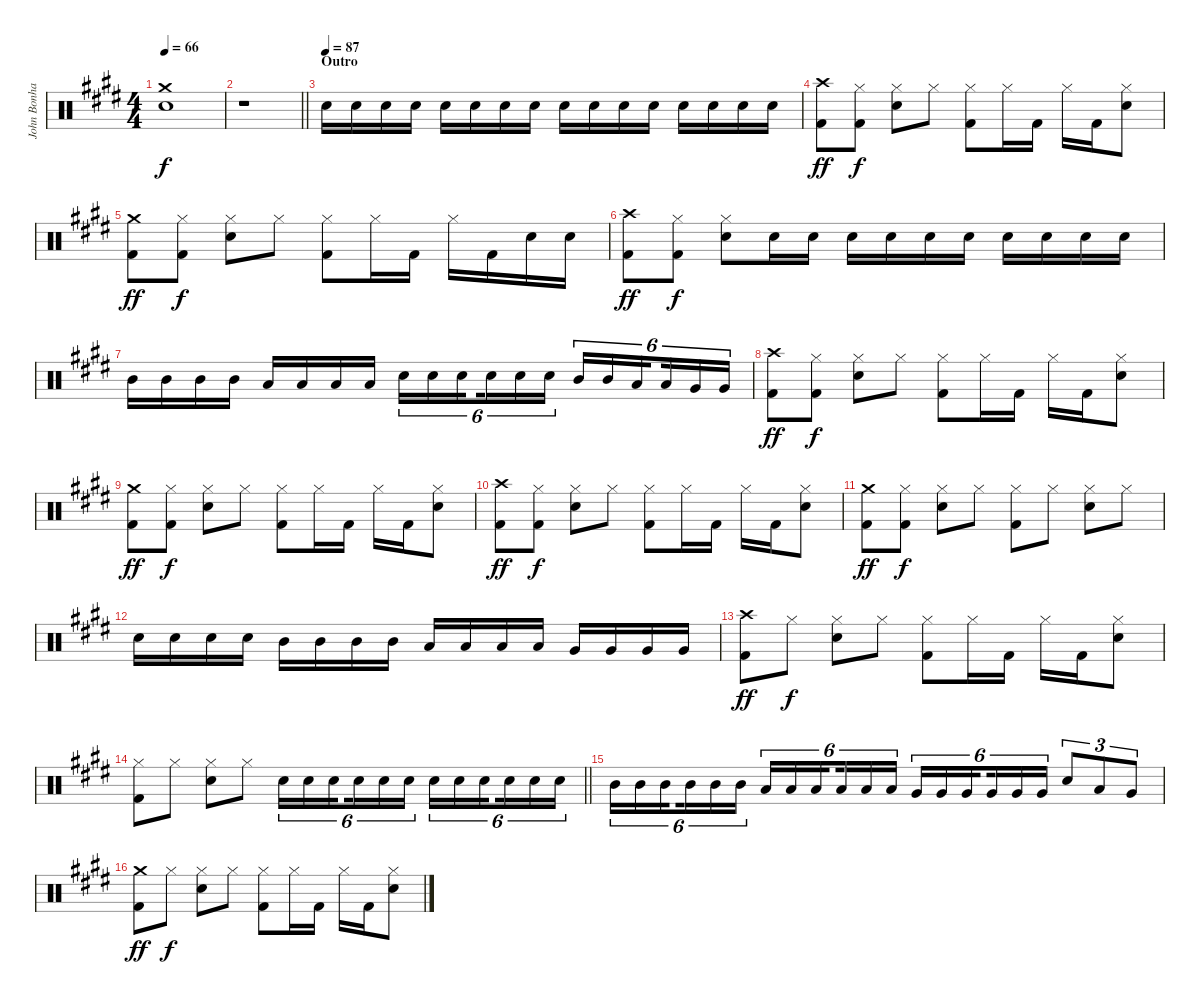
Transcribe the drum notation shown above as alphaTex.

\track ("John Bonham Drums" "John Bonha") {instrument percussion}
\staff {score}
\articulation defaults
\ts (4 4)
\tempo 66
\clef neutral
\ks e
("Crash medium (hit)"{t} "Snare (hit)"{t}).1{dy f} |
\barLineRight lightlight
r.1 |
\section ("" "Outro")
\tempo 88
\tempo (87)
"Snare (hit) 2".16 "Snare (hit) 2".16 "Snare (hit) 2".16 "Snare (hit) 2".16 "Snare (hit) 2".16 "Snare (hit) 2".16 "Snare (hit) 2".16 "Snare (hit) 2".16 "Snare (hit) 2".16 "Snare (hit) 2".16 "Snare (hit) 2".16 "Snare (hit) 2".16 "Snare (hit) 2".16 "Snare (hit) 2".16 "Snare (hit) 2".16 "Snare (hit) 2".16 |
("Crash high (hit)" "Kick (hit) 2").8{dy ff} ("Hi-Hat (closed)" "Kick (hit) 2").8{dy f} ("Hi-Hat (closed)" "Snare (hit) 2").8 "Hi-Hat (closed)".8 ("Hi-Hat (closed)" "Kick (hit) 2").8 "Hi-Hat (closed)".16 "Kick (hit) 2".16 "Hi-Hat (closed)".16 "Kick (hit) 2".16 ("Hi-Hat (closed)" "Snare (hit) 2").8 |
("Crash medium (hit)" "Kick (hit) 2").8{dy ff} ("Hi-Hat (closed)" "Kick (hit) 2").8{dy f} ("Hi-Hat (closed)" "Snare (hit) 2").8 "Hi-Hat (closed)".8 ("Hi-Hat (closed)" "Kick (hit) 2").8 "Hi-Hat (closed)".16 "Kick (hit) 2".16 "Hi-Hat (closed)".16 "Kick (hit) 2".16 "Snare (hit) 2".16 "Snare (hit) 2".16 |
("Crash high (hit)" "Kick (hit) 2").8{dy ff} ("Hi-Hat (closed)" "Kick (hit) 2").8{dy f} ("Hi-Hat (closed)" "Snare (hit) 2").8 "Snare (hit) 2".16 "Snare (hit) 2".16 "Snare (hit) 2".16 "Snare (hit) 2".16 "Snare (hit) 2".16 "Snare (hit) 2".16 "Snare (hit) 2".16 "Snare (hit) 2".16 "Snare (hit) 2".16 "Snare (hit) 2".16 |
"Mid Tom (hit)".16 "Mid Tom (hit)".16 "Mid Tom (hit)".16 "Mid Tom (hit)".16 "Low Tom (hit)".16 "Low Tom (hit)".16 "Low Tom (hit)".16 "Low Tom (hit)".16 "Snare (hit) 2".16{tu (6 4)} "Snare (hit) 2".16{tu (6 4)} "Snare (hit) 2".16{tu (6 4) beam splitsecondary} "Snare (hit) 2".16{tu (6 4)} "Snare (hit) 2".16{tu (6 4)} "Snare (hit) 2".16{tu (6 4)} "Mid Tom (hit)".16{tu (6 4)} "Mid Tom (hit)".16{tu (6 4)} "Low Tom (hit)".16{tu (6 4) beam splitsecondary} "Low Tom (hit)".16{tu (6 4)} "Very Low Tom (hit)".16{tu (6 4)} "Very Low Tom (hit)".16{tu (6 4)} |
("Crash high (hit)" "Kick (hit) 2").8{dy ff} ("Hi-Hat (closed)" "Kick (hit) 2").8{dy f} ("Hi-Hat (closed)" "Snare (hit) 2").8 "Hi-Hat (closed)".8 ("Hi-Hat (closed)" "Kick (hit) 2").8 "Hi-Hat (closed)".16 "Kick (hit) 2".16 "Hi-Hat (closed)".16 "Kick (hit) 2".16 ("Hi-Hat (closed)" "Snare (hit) 2").8 |
("Crash medium (hit)" "Kick (hit) 2").8{dy ff} ("Hi-Hat (closed)" "Kick (hit) 2").8{dy f} ("Hi-Hat (closed)" "Snare (hit) 2").8 "Hi-Hat (closed)".8 ("Hi-Hat (closed)" "Kick (hit) 2").8 "Hi-Hat (closed)".16 "Kick (hit) 2".16 "Hi-Hat (closed)".16 "Kick (hit) 2".16 ("Hi-Hat (closed)" "Snare (hit) 2").8 |
("Crash high (hit)" "Kick (hit) 2").8{dy ff} ("Hi-Hat (closed)" "Kick (hit) 2").8{dy f} ("Hi-Hat (closed)" "Snare (hit) 2").8 "Hi-Hat (closed)".8 ("Hi-Hat (closed)" "Kick (hit) 2").8 "Hi-Hat (closed)".16 "Kick (hit) 2".16 "Hi-Hat (closed)".16 "Kick (hit) 2".16 ("Hi-Hat (closed)" "Snare (hit) 2").8 |
("Crash medium (hit)" "Kick (hit) 2").8{dy ff} ("Hi-Hat (closed)" "Kick (hit) 2").8{dy f} ("Hi-Hat (closed)" "Snare (hit) 2").8 "Hi-Hat (closed)".8 ("Hi-Hat (closed)" "Kick (hit) 2").8 "Hi-Hat (closed)".8 ("Hi-Hat (closed)" "Snare (hit) 2").8 "Hi-Hat (closed)".8 |
"Snare (hit) 2".16 "Snare (hit) 2".16 "Snare (hit) 2".16 "Snare (hit) 2".16 "Mid Tom (hit)".16 "Mid Tom (hit)".16 "Mid Tom (hit)".16 "Mid Tom (hit)".16 "Low Tom (hit)".16 "Low Tom (hit)".16 "Low Tom (hit)".16 "Low Tom (hit)".16 "Very Low Tom (hit)".16 "Very Low Tom (hit)".16 "Very Low Tom (hit)".16 "Very Low Tom (hit)".16 |
("Crash high (hit)" "Kick (hit) 2").8{dy ff} "Hi-Hat (closed)".8{dy f} ("Hi-Hat (closed)" "Snare (hit) 2").8 "Hi-Hat (closed)".8 ("Hi-Hat (closed)" "Kick (hit) 2").8 "Hi-Hat (closed)".16 "Kick (hit) 2".16 "Hi-Hat (closed)".16 "Kick (hit) 2".16 ("Hi-Hat (closed)" "Snare (hit) 2").8 |
\barLineRight lightlight
("Hi-Hat (closed)" "Kick (hit) 2").8 "Hi-Hat (closed)".8 ("Hi-Hat (closed)" "Snare (hit) 2").8 "Hi-Hat (closed)".8 "Snare (hit) 2".16{tu (6 4)} "Snare (hit) 2".16{tu (6 4)} "Snare (hit) 2".16{tu (6 4) beam splitsecondary} "Snare (hit) 2".16{tu (6 4)} "Snare (hit) 2".16{tu (6 4)} "Snare (hit) 2".16{tu (6 4)} "Snare (hit) 2".16{tu (6 4)} "Snare (hit) 2".16{tu (6 4)} "Snare (hit) 2".16{tu (6 4) beam splitsecondary} "Snare (hit) 2".16{tu (6 4)} "Snare (hit) 2".16{tu (6 4)} "Snare (hit) 2".16{tu (6 4)} |
"Mid Tom (hit)".16{tu (6 4)} "Mid Tom (hit)".16{tu (6 4)} "Mid Tom (hit)".16{tu (6 4) beam splitsecondary} "Mid Tom (hit)".16{tu (6 4)} "Mid Tom (hit)".16{tu (6 4)} "Mid Tom (hit)".16{tu (6 4)} "Low Tom (hit)".16{tu (6 4)} "Low Tom (hit)".16{tu (6 4)} "Low Tom (hit)".16{tu (6 4) beam splitsecondary} "Low Tom (hit)".16{tu (6 4)} "Low Tom (hit)".16{tu (6 4)} "Low Tom (hit)".16{tu (6 4)} "Very Low Tom (hit)".16{tu (6 4)} "Very Low Tom (hit)".16{tu (6 4)} "Very Low Tom (hit)".16{tu (6 4) beam splitsecondary} "Very Low Tom (hit)".16{tu (6 4)} "Very Low Tom (hit)".16{tu (6 4)} "Very Low Tom (hit)".16{tu (6 4)} "Snare (hit) 2".8{tu (3 2)} "Low Tom (hit)".8{tu (3 2)} "Very Low Tom (hit)".8{tu (3 2)} |
("Crash medium (hit)" "Kick (hit) 2").8{dy ff} "Hi-Hat (closed)".8{dy f} ("Hi-Hat (closed)" "Snare (hit) 2").8 "Hi-Hat (closed)".8 ("Hi-Hat (closed)" "Kick (hit) 2").8 "Hi-Hat (closed)".16 "Kick (hit) 2".16 "Hi-Hat (closed)".16 "Kick (hit) 2".16 ("Hi-Hat (closed)" "Snare (hit) 2").8
